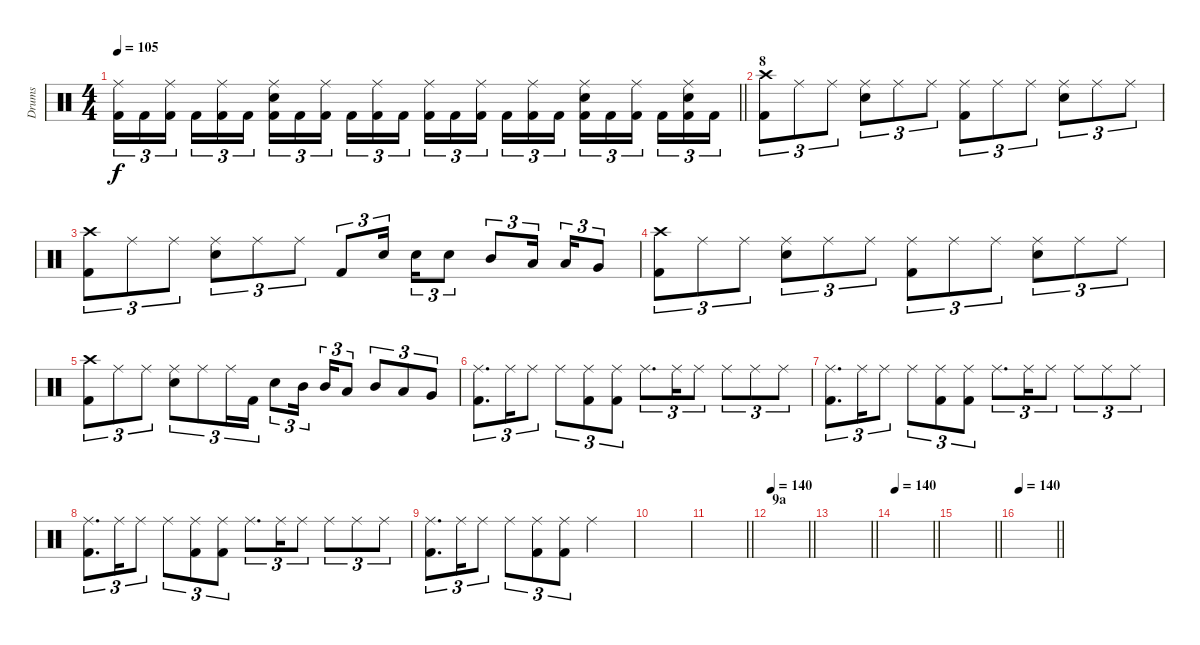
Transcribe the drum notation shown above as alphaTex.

\track ("Drums" "Drums") {instrument percussion}
\staff {score}
\articulation defaults
\ts (4 4)
\tempo 105
\clef neutral
\barLineRight lightlight
\ks c
("Ride (middle)" "Kick (hit) 2").16{tu (3 2) dy f} "Kick (hit) 2".16{tu (3 2)} ("Ride (middle)" "Kick (hit) 2").16{tu (3 2) beam splitsecondary} "Kick (hit) 2".16{tu (3 2)} ("Ride (middle)" "Kick (hit) 2").16{tu (3 2)} "Kick (hit) 2".16{tu (3 2)} ("Ride (middle)" "Electric Snare (hit)" "Kick (hit) 2").16{tu (3 2)} "Kick (hit) 2".16{tu (3 2)} ("Ride (middle)" "Kick (hit) 2").16{tu (3 2) beam splitsecondary} "Kick (hit) 2".16{tu (3 2)} ("Ride (middle)" "Kick (hit) 2").16{tu (3 2)} "Kick (hit) 2".16{tu (3 2)} ("Ride (middle)" "Kick (hit) 2").16{tu (3 2)} "Kick (hit) 2".16{tu (3 2)} ("Ride (middle)" "Kick (hit) 2").16{tu (3 2) beam splitsecondary} "Kick (hit) 2".16{tu (3 2)} ("Ride (middle)" "Kick (hit) 2").16{tu (3 2)} "Kick (hit) 2".16{tu (3 2)} ("Ride (middle)" "Electric Snare (hit)" "Kick (hit) 2").16{tu (3 2)} "Kick (hit) 2".16{tu (3 2)} ("Ride (middle)" "Kick (hit) 2").16{tu (3 2) beam splitsecondary} "Kick (hit) 2".16{tu (3 2)} ("Ride (middle)" "Electric Snare (hit)" "Kick (hit) 2").16{tu (3 2)} "Kick (hit) 2".16{tu (3 2)} |
\section ("" "8")
("Crash high (hit)" "Kick (hit) 2").8{tu (3 2)} "Ride (middle)".8{tu (3 2)} "Ride (middle)".8{tu (3 2)} ("Ride (middle)" "Electric Snare (hit)").8{tu (3 2)} "Ride (middle)".8{tu (3 2)} "Ride (middle)".8{tu (3 2)} ("Ride (middle)" "Kick (hit) 2").8{tu (3 2)} "Ride (middle)".8{tu (3 2)} "Ride (middle)".8{tu (3 2)} ("Ride (middle)" "Electric Snare (hit)").8{tu (3 2)} "Ride (middle)".8{tu (3 2)} "Ride (middle)".8{tu (3 2)} |
("Crash high (hit)" "Kick (hit) 2").8{tu (3 2)} "Ride (middle)".8{tu (3 2)} "Ride (middle)".8{tu (3 2)} ("Ride (middle)" "Electric Snare (hit)").8{tu (3 2)} "Ride (middle)".8{tu (3 2)} "Ride (middle)".8{tu (3 2)} "Kick (hit) 2".8{tu (3 2)} "Electric Snare (hit)".16{tu (3 2) beam splitsecondary} "Electric Snare (hit)".16{tu (3 2)} "Electric Snare (hit)".8{tu (3 2)} "Mid Tom (hit)".8{tu (3 2)} "Low Tom (hit)".16{tu (3 2) beam splitsecondary} "Low Tom (hit)".16{tu (3 2)} "Very Low Tom (hit)".8{tu (3 2)} |
("Crash high (hit)" "Kick (hit) 2").8{tu (3 2)} "Ride (middle)".8{tu (3 2)} "Ride (middle)".8{tu (3 2)} ("Ride (middle)" "Electric Snare (hit)").8{tu (3 2)} "Ride (middle)".8{tu (3 2)} "Ride (middle)".8{tu (3 2)} ("Ride (middle)" "Kick (hit) 2").8{tu (3 2)} "Ride (middle)".8{tu (3 2)} "Ride (middle)".8{tu (3 2)} ("Ride (middle)" "Electric Snare (hit)").8{tu (3 2)} "Ride (middle)".8{tu (3 2)} "Ride (middle)".8{tu (3 2)} |
("Crash high (hit)" "Kick (hit) 2").8{tu (3 2)} "Ride (middle)".8{tu (3 2)} "Ride (middle)".8{tu (3 2)} ("Ride (middle)" "Electric Snare (hit)").8{tu (3 2)} "Ride (middle)".8{tu (3 2)} "Ride (middle)".16{tu (3 2)} "Kick (hit) 2".16{tu (3 2)} "Electric Snare (hit)".8{tu (3 2)} "Mid Tom (hit)".16{tu (3 2) beam splitsecondary} "Mid Tom (hit)".16{tu (3 2)} "Low Tom (hit)".8{tu (3 2)} "Mid Tom (hit)".8{tu (3 2)} "Low Tom (hit)".8{tu (3 2)} "Very Low Tom (hit)".8{tu (3 2)} |
("Ride (middle)" "Kick (hit) 2").8{d tu (3 2)} "Ride (middle)".16{tu (3 2)} "Ride (middle)".8{tu (3 2)} "Ride (middle)".8{tu (3 2)} ("Ride (middle)" "Kick (hit) 2").8{tu (3 2)} ("Ride (middle)" "Kick (hit) 2").8{tu (3 2)} "Ride (middle)".8{d tu (3 2)} "Ride (middle)".16{tu (3 2)} "Ride (middle)".8{tu (3 2)} "Ride (middle)".8{tu (3 2)} "Ride (middle)".8{tu (3 2)} "Ride (middle)".8{tu (3 2)} |
("Ride (middle)" "Kick (hit) 2").8{d tu (3 2)} "Ride (middle)".16{tu (3 2)} "Ride (middle)".8{tu (3 2)} "Ride (middle)".8{tu (3 2)} ("Ride (middle)" "Kick (hit) 2").8{tu (3 2)} ("Ride (middle)" "Kick (hit) 2").8{tu (3 2)} "Ride (middle)".8{d tu (3 2)} "Ride (middle)".16{tu (3 2)} "Ride (middle)".8{tu (3 2)} "Ride (middle)".8{tu (3 2)} "Ride (middle)".8{tu (3 2)} "Ride (middle)".8{tu (3 2)} |
("Ride (middle)" "Kick (hit) 2").8{d tu (3 2)} "Ride (middle)".16{tu (3 2)} "Ride (middle)".8{tu (3 2)} "Ride (middle)".8{tu (3 2)} ("Ride (middle)" "Kick (hit) 2").8{tu (3 2)} ("Ride (middle)" "Kick (hit) 2").8{tu (3 2)} "Ride (middle)".8{d tu (3 2)} "Ride (middle)".16{tu (3 2)} "Ride (middle)".8{tu (3 2)} "Ride (middle)".8{tu (3 2)} "Ride (middle)".8{tu (3 2)} "Ride (middle)".8{tu (3 2)} |
("Ride (middle)" "Kick (hit) 2").8{d tu (3 2)} "Ride (middle)".16{tu (3 2)} "Ride (middle)".8{tu (3 2)} "Ride (middle)".8{tu (3 2)} ("Ride (middle)" "Kick (hit) 2").8{tu (3 2)} ("Ride (middle)" "Kick (hit) 2").8{tu (3 2)} "Ride (middle)".2 |
|
\barLineRight lightlight
|
\section ("" "9a")
\tempo 140
\barLineRight lightlight
|
\barLineRight lightlight
|
\tempo 140
\barLineRight lightlight
|
\barLineRight lightlight
|
\tempo 140
\barLineRight lightlight
